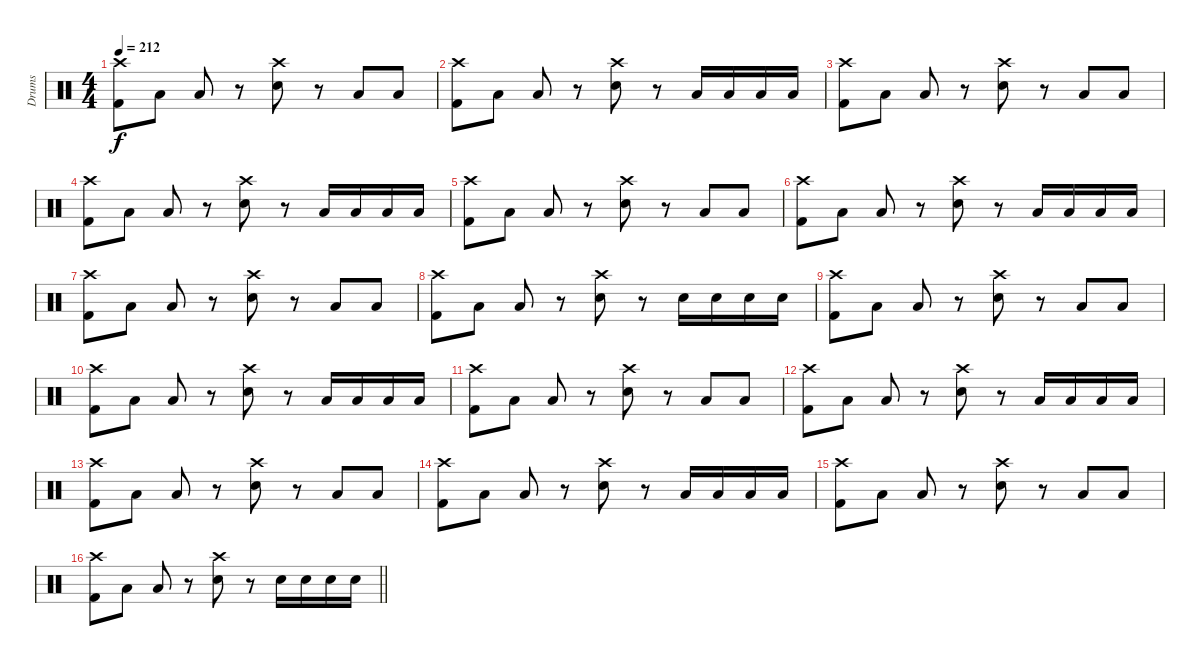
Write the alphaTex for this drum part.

\track ("Drums" "Drums") {instrument percussion}
\staff {score}
\articulation defaults
\ts (4 4)
\tempo 212
\clef neutral
\ks c
("Crash high (hit)" "Kick (hit) 2").8{dy f} "Low Floor Tom (hit)".8 "Low Floor Tom (hit)".8 r.8 ("Crash high (hit)" "Snare (hit) 2").8 r.8 "Low Floor Tom (hit)".8 "Low Floor Tom (hit)".8 |
("Crash high (hit)" "Kick (hit) 2").8 "Low Floor Tom (hit)".8 "Low Floor Tom (hit)".8 r.8 ("Crash high (hit)" "Snare (hit) 2").8 r.8 "Low Floor Tom (hit)".16 "Low Floor Tom (hit)".16 "Low Floor Tom (hit)".16 "Low Floor Tom (hit)".16 |
("Crash high (hit)" "Kick (hit) 2").8 "Low Floor Tom (hit)".8 "Low Floor Tom (hit)".8 r.8 ("Crash high (hit)" "Snare (hit) 2").8 r.8 "Low Floor Tom (hit)".8 "Low Floor Tom (hit)".8 |
("Crash high (hit)" "Kick (hit) 2").8 "Low Floor Tom (hit)".8 "Low Floor Tom (hit)".8 r.8 ("Crash high (hit)" "Snare (hit) 2").8 r.8 "Low Floor Tom (hit)".16 "Low Floor Tom (hit)".16 "Low Floor Tom (hit)".16 "Low Floor Tom (hit)".16 |
("Crash high (hit)" "Kick (hit) 2").8 "Low Floor Tom (hit)".8 "Low Floor Tom (hit)".8 r.8 ("Crash high (hit)" "Snare (hit) 2").8 r.8 "Low Floor Tom (hit)".8 "Low Floor Tom (hit)".8 |
("Crash high (hit)" "Kick (hit) 2").8 "Low Floor Tom (hit)".8 "Low Floor Tom (hit)".8 r.8 ("Crash high (hit)" "Snare (hit) 2").8 r.8 "Low Floor Tom (hit)".16 "Low Floor Tom (hit)".16 "Low Floor Tom (hit)".16 "Low Floor Tom (hit)".16 |
("Crash high (hit)" "Kick (hit) 2").8 "Low Floor Tom (hit)".8 "Low Floor Tom (hit)".8 r.8 ("Crash high (hit)" "Snare (hit) 2").8 r.8 "Low Floor Tom (hit)".8 "Low Floor Tom (hit)".8 |
("Crash high (hit)" "Kick (hit) 2").8 "Low Floor Tom (hit)".8 "Low Floor Tom (hit)".8 r.8 ("Crash high (hit)" "Snare (hit) 2").8 r.8 "Snare (hit) 2".16 "Snare (hit) 2".16 "Snare (hit) 2".16 "Snare (hit) 2".16 |
("Crash high (hit)" "Kick (hit) 2").8 "Low Floor Tom (hit)".8 "Low Floor Tom (hit)".8 r.8 ("Crash high (hit)" "Snare (hit) 2").8 r.8 "Low Floor Tom (hit)".8 "Low Floor Tom (hit)".8 |
("Crash high (hit)" "Kick (hit) 2").8 "Low Floor Tom (hit)".8 "Low Floor Tom (hit)".8 r.8 ("Crash high (hit)" "Snare (hit) 2").8 r.8 "Low Floor Tom (hit)".16 "Low Floor Tom (hit)".16 "Low Floor Tom (hit)".16 "Low Floor Tom (hit)".16 |
("Crash high (hit)" "Kick (hit) 2").8 "Low Floor Tom (hit)".8 "Low Floor Tom (hit)".8 r.8 ("Crash high (hit)" "Snare (hit) 2").8 r.8 "Low Floor Tom (hit)".8 "Low Floor Tom (hit)".8 |
("Crash high (hit)" "Kick (hit) 2").8 "Low Floor Tom (hit)".8 "Low Floor Tom (hit)".8 r.8 ("Crash high (hit)" "Snare (hit) 2").8 r.8 "Low Floor Tom (hit)".16 "Low Floor Tom (hit)".16 "Low Floor Tom (hit)".16 "Low Floor Tom (hit)".16 |
("Crash high (hit)" "Kick (hit) 2").8 "Low Floor Tom (hit)".8 "Low Floor Tom (hit)".8 r.8 ("Crash high (hit)" "Snare (hit) 2").8 r.8 "Low Floor Tom (hit)".8 "Low Floor Tom (hit)".8 |
("Crash high (hit)" "Kick (hit) 2").8 "Low Floor Tom (hit)".8 "Low Floor Tom (hit)".8 r.8 ("Crash high (hit)" "Snare (hit) 2").8 r.8 "Low Floor Tom (hit)".16 "Low Floor Tom (hit)".16 "Low Floor Tom (hit)".16 "Low Floor Tom (hit)".16 |
("Crash high (hit)" "Kick (hit) 2").8 "Low Floor Tom (hit)".8 "Low Floor Tom (hit)".8 r.8 ("Crash high (hit)" "Snare (hit) 2").8 r.8 "Low Floor Tom (hit)".8 "Low Floor Tom (hit)".8 |
\barLineRight lightlight
("Crash high (hit)" "Kick (hit) 2").8 "Low Floor Tom (hit)".8 "Low Floor Tom (hit)".8 r.8 ("Crash high (hit)" "Snare (hit) 2").8 r.8 "Snare (hit) 2".16 "Snare (hit) 2".16 "Snare (hit) 2".16 "Snare (hit) 2".16
